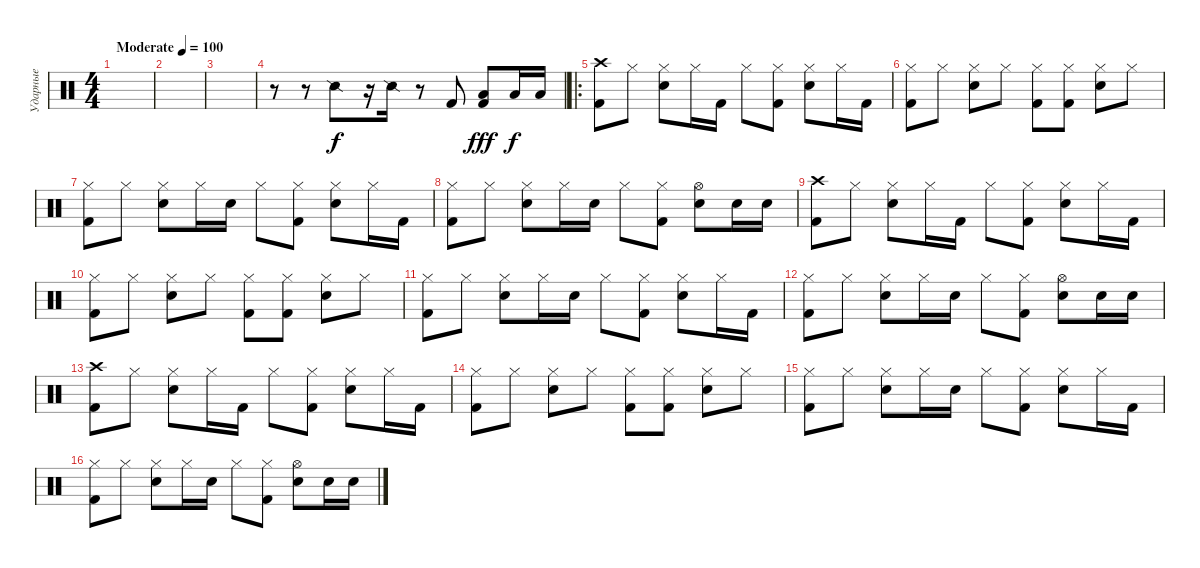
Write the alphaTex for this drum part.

\track ("Ударные" "Ударные") {instrument percussion}
\staff {score}
\articulation defaults
\ts (4 4)
\tempo (100 "Moderate")
\clef neutral
\ks c
|
|
|
r.8 r.8 "Snare (side stick) 2".8 r.16 "Snare (side stick) 2".16 r.8 "Kick (hit) 2".8 ("Low Tom (hit)" "Kick (hit) 2").8{dy fff} "Low Tom (hit)".16{dy f} "Low Tom (hit)".16 |
\ro
("Crash high (hit)" "Kick (hit) 2").8 "Hi-Hat (closed)".8 ("Hi-Hat (closed)" "Electric Snare (hit)").8 "Hi-Hat (closed)".16 "Kick (hit) 2".16 "Hi-Hat (closed)".8 ("Hi-Hat (closed)" "Kick (hit) 2").8 ("Hi-Hat (closed)" "Electric Snare (hit)").8 "Hi-Hat (closed)".16 "Kick (hit) 2".16 |
("Hi-Hat (closed)" "Kick (hit) 2").8 "Hi-Hat (closed)".8 ("Hi-Hat (closed)" "Electric Snare (hit)").8 "Hi-Hat (closed)".8 ("Hi-Hat (closed)" "Kick (hit) 2").8 ("Hi-Hat (closed)" "Kick (hit) 2").8 ("Hi-Hat (closed)" "Electric Snare (hit)").8 "Hi-Hat (closed)".8 |
("Hi-Hat (closed)" "Kick (hit) 2").8 "Hi-Hat (closed)".8 ("Hi-Hat (closed)" "Electric Snare (hit)").8 "Hi-Hat (closed)".16 "Electric Snare (hit)".16 "Hi-Hat (closed)".8 ("Hi-Hat (closed)" "Kick (hit) 2").8 ("Hi-Hat (closed)" "Electric Snare (hit)").8 "Hi-Hat (closed)".16 "Kick (hit) 2".16 |
("Hi-Hat (closed)" "Kick (hit) 2").8 "Hi-Hat (closed)".8 ("Hi-Hat (closed)" "Electric Snare (hit)").8 "Hi-Hat (closed)".16 "Electric Snare (hit)".16 "Hi-Hat (closed)".8 ("Hi-Hat (closed)" "Kick (hit) 2").8 ("Hi-Hat (open)" "Electric Snare (hit)").8 "Electric Snare (hit)".16 "Electric Snare (hit)".16 |
("Crash high (hit)" "Kick (hit) 2").8 "Hi-Hat (closed)".8 ("Hi-Hat (closed)" "Electric Snare (hit)").8 "Hi-Hat (closed)".16 "Kick (hit) 2".16 "Hi-Hat (closed)".8 ("Hi-Hat (closed)" "Kick (hit) 2").8 ("Hi-Hat (closed)" "Electric Snare (hit)").8 "Hi-Hat (closed)".16 "Kick (hit) 2".16 |
("Hi-Hat (closed)" "Kick (hit) 2").8 "Hi-Hat (closed)".8 ("Hi-Hat (closed)" "Electric Snare (hit)").8 "Hi-Hat (closed)".8 ("Hi-Hat (closed)" "Kick (hit) 2").8 ("Hi-Hat (closed)" "Kick (hit) 2").8 ("Hi-Hat (closed)" "Electric Snare (hit)").8 "Hi-Hat (closed)".8 |
("Hi-Hat (closed)" "Kick (hit) 2").8 "Hi-Hat (closed)".8 ("Hi-Hat (closed)" "Electric Snare (hit)").8 "Hi-Hat (closed)".16 "Electric Snare (hit)".16 "Hi-Hat (closed)".8 ("Hi-Hat (closed)" "Kick (hit) 2").8 ("Hi-Hat (closed)" "Electric Snare (hit)").8 "Hi-Hat (closed)".16 "Kick (hit) 2".16 |
("Hi-Hat (closed)" "Kick (hit) 2").8 "Hi-Hat (closed)".8 ("Hi-Hat (closed)" "Electric Snare (hit)").8 "Hi-Hat (closed)".16 "Electric Snare (hit)".16 "Hi-Hat (closed)".8 ("Hi-Hat (closed)" "Kick (hit) 2").8 ("Hi-Hat (open)" "Electric Snare (hit)").8 "Electric Snare (hit)".16 "Electric Snare (hit)".16 |
("Crash high (hit)" "Kick (hit) 2").8 "Hi-Hat (closed)".8 ("Hi-Hat (closed)" "Electric Snare (hit)").8 "Hi-Hat (closed)".16 "Kick (hit) 2".16 "Hi-Hat (closed)".8 ("Hi-Hat (closed)" "Kick (hit) 2").8 ("Hi-Hat (closed)" "Electric Snare (hit)").8 "Hi-Hat (closed)".16 "Kick (hit) 2".16 |
("Hi-Hat (closed)" "Kick (hit) 2").8 "Hi-Hat (closed)".8 ("Hi-Hat (closed)" "Electric Snare (hit)").8 "Hi-Hat (closed)".8 ("Hi-Hat (closed)" "Kick (hit) 2").8 ("Hi-Hat (closed)" "Kick (hit) 2").8 ("Hi-Hat (closed)" "Electric Snare (hit)").8 "Hi-Hat (closed)".8 |
("Hi-Hat (closed)" "Kick (hit) 2").8 "Hi-Hat (closed)".8 ("Hi-Hat (closed)" "Electric Snare (hit)").8 "Hi-Hat (closed)".16 "Electric Snare (hit)".16 "Hi-Hat (closed)".8 ("Hi-Hat (closed)" "Kick (hit) 2").8 ("Hi-Hat (closed)" "Electric Snare (hit)").8 "Hi-Hat (closed)".16 "Kick (hit) 2".16 |
("Hi-Hat (closed)" "Kick (hit) 2").8 "Hi-Hat (closed)".8 ("Hi-Hat (closed)" "Electric Snare (hit)").8 "Hi-Hat (closed)".16 "Electric Snare (hit)".16 "Hi-Hat (closed)".8 ("Hi-Hat (closed)" "Kick (hit) 2").8 ("Hi-Hat (open)" "Electric Snare (hit)").8 "Electric Snare (hit)".16 "Electric Snare (hit)".16
